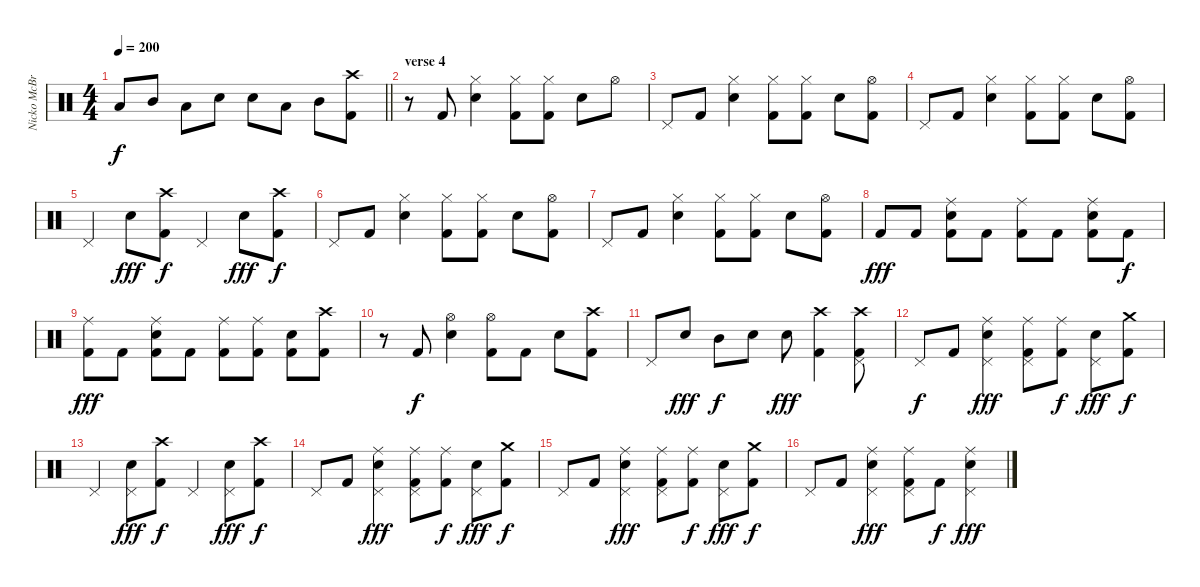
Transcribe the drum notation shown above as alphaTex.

\track ("Nicko McBrain" "Nicko McBr") {instrument percussion}
\staff {score}
\articulation defaults
\ts (4 4)
\tempo 200
\clef neutral
\barLineRight lightlight
\ks c "Low Floor Tom (hit)".8{dy f} "Mid Tom (hit)".8 "Low Floor Tom (hit)".8 "Snare (hit) 2".8 "Snare (hit) 2".8 "Low Floor Tom (hit)".8 "Mid Tom (hit)".8
("Crash high (hit)" "Kick (hit) 2").8 |
\section ("" "verse 4")
r.8 "Kick (hit) 2".8 ("Hi-Hat (closed)" "Snare (hit) 2").4 ("Hi-Hat (closed)" "Kick (hit) 2").8 ("Hi-Hat (closed)" "Kick (hit) 2").8 "Snare (hit) 2".8 "Hi-Hat (open)".8 |
"Pedal Hi-Hat (hit)".8 "Kick (hit) 2".8 ("Hi-Hat (closed)" "Snare (hit) 2").4 ("Hi-Hat (closed)" "Kick (hit) 2").8 ("Hi-Hat (closed)" "Kick (hit) 2").8 "Snare (hit) 2".8 ("Hi-Hat (open)" "Kick (hit) 2").8 |
"Pedal Hi-Hat (hit)".8 "Kick (hit) 2".8 ("Hi-Hat (closed)" "Snare (hit) 2").4 ("Hi-Hat (closed)" "Kick (hit) 2").8 ("Hi-Hat (closed)" "Kick (hit) 2").8 "Snare (hit) 2".8 ("Hi-Hat (open)" "Kick (hit) 2").8 |
"Pedal Hi-Hat (hit)".4 "Snare (hit) 2".8{dy fff} ("Crash high (hit)" "Kick (hit) 2").8{dy f} "Pedal Hi-Hat (hit)".4 "Snare (hit) 2".8{dy fff} ("Crash high (hit)" "Kick (hit) 2").8{dy f} |
"Pedal Hi-Hat (hit)".8 "Kick (hit) 2".8 ("Hi-Hat (closed)" "Snare (hit) 2").4 ("Hi-Hat (closed)" "Kick (hit) 2").8 ("Hi-Hat (closed)" "Kick (hit) 2").8 "Snare (hit) 2".8 ("Hi-Hat (open)" "Kick (hit) 2").8 |
"Pedal Hi-Hat (hit)".8 "Kick (hit) 2".8 ("Hi-Hat (closed)" "Snare (hit) 2").4 ("Hi-Hat (closed)" "Kick (hit) 2").8 ("Hi-Hat (closed)" "Kick (hit) 2").8 "Snare (hit) 2".8 ("Hi-Hat (open)" "Kick (hit) 2").8 |
"Kick (hit) 2".8{dy fff} "Kick (hit) 2".8 ("Ride (middle)" "Snare (hit) 2" "Kick (hit) 2").8 "Kick (hit) 2".8 ("Ride (middle)" "Kick (hit) 2").8 "Kick (hit) 2".8 ("Ride (middle)" "Snare (hit) 2" "Kick (hit) 2").8 "Kick (hit) 2".8{dy f} |
("Ride (middle)" "Kick (hit) 2").8{dy fff} "Kick (hit) 2".8 ("Ride (middle)" "Snare (hit) 2" "Kick (hit) 2").8 "Kick (hit) 2".8 ("Ride (middle)" "Kick (hit) 2").8 ("Ride (middle)" "Kick (hit) 2").8 ("Snare (hit) 2" "Kick (hit) 2").8 ("Crash high (hit)" "Kick (hit) 2").8 |
r.8 "Kick (hit) 2".8{dy f} ("Hi-Hat (open)" "Snare (hit) 2").4 ("Hi-Hat (open)" "Kick (hit) 2").8 "Kick (hit) 2".8 "Snare (hit) 2".8 ("Crash high (hit)" "Kick (hit) 2").8 |
"Pedal Hi-Hat (hit)".8 "Snare (hit) 2".8{dy fff} "Mid Tom (hit)".8{dy f} "Snare (hit) 2".8 "Snare (hit) 2".8{dy fff} ("Crash high (hit)" "Kick (hit) 2").4 ("Crash high (hit)" "Pedal Hi-Hat (hit)" "Kick (hit) 2").8 |
"Pedal Hi-Hat (hit)".8{dy f} "Kick (hit) 2".8 ("Ride (middle)" "Snare (hit) 2" "Pedal Hi-Hat (hit)").4{dy fff} ("Ride (middle)" "Pedal Hi-Hat (hit)" "Kick (hit) 2").8 ("Ride (middle)" "Kick (hit) 2").8{dy f} ("Snare (hit) 2" "Pedal Hi-Hat (hit)").8{dy fff} ("Crash medium (hit)" "Kick (hit) 2").8{dy f} |
"Pedal Hi-Hat (hit)".4 ("Snare (hit) 2" "Pedal Hi-Hat (hit)").8{dy fff} ("Crash high (hit)" "Kick (hit) 2").8{dy f} "Pedal Hi-Hat (hit)".4 ("Snare (hit) 2" "Pedal Hi-Hat (hit)").8{dy fff} ("Crash high (hit)" "Kick (hit) 2").8{dy f} |
"Pedal Hi-Hat (hit)".8 "Kick (hit) 2".8 ("Ride (middle)" "Snare (hit) 2" "Pedal Hi-Hat (hit)").4{dy fff} ("Ride (middle)" "Pedal Hi-Hat (hit)" "Kick (hit) 2").8 ("Ride (middle)" "Kick (hit) 2").8{dy f} ("Snare (hit) 2" "Pedal Hi-Hat (hit)").8{dy fff} ("Crash medium (hit)" "Kick (hit) 2").8{dy f} |
"Pedal Hi-Hat (hit)".8 "Kick (hit) 2".8 ("Ride (middle)" "Snare (hit) 2" "Pedal Hi-Hat (hit)").4{dy fff} ("Ride (middle)" "Pedal Hi-Hat (hit)" "Kick (hit) 2").8 ("Ride (middle)" "Kick (hit) 2").8{dy f} ("Snare (hit) 2" "Pedal Hi-Hat (hit)").8{dy fff} ("Crash medium (hit)" "Kick (hit) 2").8{dy f} |
"Pedal Hi-Hat (hit)".8 "Kick (hit) 2".8 ("Ride (middle)" "Snare (hit) 2" "Pedal Hi-Hat (hit)").4{dy fff} ("Ride (middle)" "Pedal Hi-Hat (hit)" "Kick (hit) 2").8 "Kick (hit) 2".8{dy f} ("Ride (middle)" "Snare (hit) 2" "Pedal Hi-Hat (hit)").4{dy fff}
